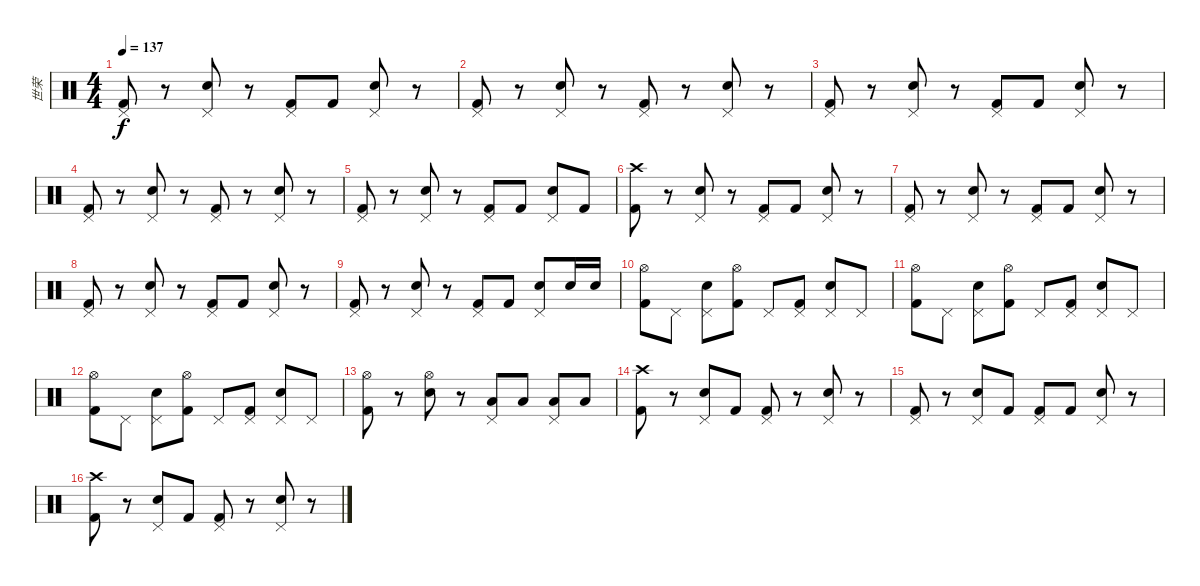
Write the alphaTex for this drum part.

\track ("世荣" "世荣") {instrument percussion}
\staff {score}
\articulation defaults
\ts (4 4)
\tempo 137
\clef neutral
\ks c
("Pedal Hi-Hat (hit)" "Kick (hit) 2").8{dy f} r.8 ("Pedal Hi-Hat (hit)" "Electric Snare (hit)").8 r.8 ("Pedal Hi-Hat (hit)" "Kick (hit) 2").8 "Kick (hit) 2".8 ("Pedal Hi-Hat (hit)" "Electric Snare (hit)").8 r.8 |
("Pedal Hi-Hat (hit)" "Kick (hit) 2").8 r.8 ("Pedal Hi-Hat (hit)" "Electric Snare (hit)").8 r.8 ("Pedal Hi-Hat (hit)" "Kick (hit) 2").8 r.8 ("Pedal Hi-Hat (hit)" "Electric Snare (hit)").8 r.8 |
("Pedal Hi-Hat (hit)" "Kick (hit) 2").8 r.8 ("Pedal Hi-Hat (hit)" "Electric Snare (hit)").8 r.8 ("Pedal Hi-Hat (hit)" "Kick (hit) 2").8 "Kick (hit) 2".8 ("Pedal Hi-Hat (hit)" "Electric Snare (hit)").8 r.8 |
("Pedal Hi-Hat (hit)" "Kick (hit) 2").8 r.8 ("Pedal Hi-Hat (hit)" "Electric Snare (hit)").8 r.8 ("Pedal Hi-Hat (hit)" "Kick (hit) 2").8 r.8 ("Pedal Hi-Hat (hit)" "Electric Snare (hit)").8 r.8 |
("Pedal Hi-Hat (hit)" "Kick (hit) 2").8 r.8 ("Pedal Hi-Hat (hit)" "Electric Snare (hit)").8 r.8 ("Pedal Hi-Hat (hit)" "Kick (hit) 2").8 "Kick (hit) 2".8 ("Pedal Hi-Hat (hit)" "Electric Snare (hit)").8 "Kick (hit) 2".8 |
("Crash high (hit)" "Kick (hit) 2").8 r.8 ("Pedal Hi-Hat (hit)" "Electric Snare (hit)").8 r.8 ("Pedal Hi-Hat (hit)" "Kick (hit) 2").8 "Kick (hit) 2".8 ("Pedal Hi-Hat (hit)" "Electric Snare (hit)").8 r.8 |
("Pedal Hi-Hat (hit)" "Kick (hit) 2").8 r.8 ("Pedal Hi-Hat (hit)" "Electric Snare (hit)").8 r.8 ("Pedal Hi-Hat (hit)" "Kick (hit) 2").8 "Kick (hit) 2".8 ("Pedal Hi-Hat (hit)" "Electric Snare (hit)").8 r.8 |
("Pedal Hi-Hat (hit)" "Kick (hit) 2").8 r.8 ("Pedal Hi-Hat (hit)" "Electric Snare (hit)").8 r.8 ("Pedal Hi-Hat (hit)" "Kick (hit) 2").8 "Kick (hit) 2".8 ("Pedal Hi-Hat (hit)" "Electric Snare (hit)").8 r.8 |
("Pedal Hi-Hat (hit)" "Kick (hit) 2").8 r.8 ("Pedal Hi-Hat (hit)" "Electric Snare (hit)").8 r.8 ("Pedal Hi-Hat (hit)" "Kick (hit) 2").8 "Kick (hit) 2".8 ("Pedal Hi-Hat (hit)" "Electric Snare (hit)").8 "Electric Snare (hit)".16 "Electric Snare (hit)".16 |
("Hi-Hat (open)" "Kick (hit) 2").8 "Pedal Hi-Hat (hit)".8 ("Pedal Hi-Hat (hit)" "Electric Snare (hit)").8 ("Hi-Hat (open)" "Kick (hit) 2").8 "Pedal Hi-Hat (hit)".8 ("Pedal Hi-Hat (hit)" "Kick (hit) 2").8 ("Pedal Hi-Hat (hit)" "Electric Snare (hit)").8 "Pedal Hi-Hat (hit)".8 |
("Hi-Hat (open)" "Kick (hit) 2").8 "Pedal Hi-Hat (hit)".8 ("Pedal Hi-Hat (hit)" "Electric Snare (hit)").8 ("Hi-Hat (open)" "Kick (hit) 2").8 "Pedal Hi-Hat (hit)".8 ("Pedal Hi-Hat (hit)" "Kick (hit) 2").8 ("Pedal Hi-Hat (hit)" "Electric Snare (hit)").8 "Pedal Hi-Hat (hit)".8 |
("Hi-Hat (open)" "Kick (hit) 2").8 "Pedal Hi-Hat (hit)".8 ("Pedal Hi-Hat (hit)" "Electric Snare (hit)").8 ("Hi-Hat (open)" "Kick (hit) 2").8 "Pedal Hi-Hat (hit)".8 ("Pedal Hi-Hat (hit)" "Kick (hit) 2").8 ("Pedal Hi-Hat (hit)" "Electric Snare (hit)").8 "Pedal Hi-Hat (hit)".8 |
("Hi-Hat (open)" "Kick (hit) 2").8 r.8 ("Hi-Hat (open)" "Electric Snare (hit)").8 r.8 ("Pedal Hi-Hat (hit)" "Low Tom (hit)").8 "Low Tom (hit)".8 ("Pedal Hi-Hat (hit)" "Low Floor Tom (hit)").8 "Low Floor Tom (hit)".8 |
("Crash high (hit)" "Kick (hit) 2").8 r.8 ("Pedal Hi-Hat (hit)" "Electric Snare (hit)").8 "Kick (hit) 2".8 ("Pedal Hi-Hat (hit)" "Kick (hit) 2").8 r.8 ("Pedal Hi-Hat (hit)" "Electric Snare (hit)").8 r.8 |
("Pedal Hi-Hat (hit)" "Kick (hit) 2").8 r.8 ("Pedal Hi-Hat (hit)" "Electric Snare (hit)").8 "Kick (hit) 2".8 ("Pedal Hi-Hat (hit)" "Kick (hit) 2").8 "Kick (hit) 2".8 ("Pedal Hi-Hat (hit)" "Electric Snare (hit)").8 r.8 |
("Crash high (hit)" "Kick (hit) 2").8 r.8 ("Pedal Hi-Hat (hit)" "Electric Snare (hit)").8 "Kick (hit) 2".8 ("Pedal Hi-Hat (hit)" "Kick (hit) 2").8 r.8 ("Pedal Hi-Hat (hit)" "Electric Snare (hit)").8 r.8
